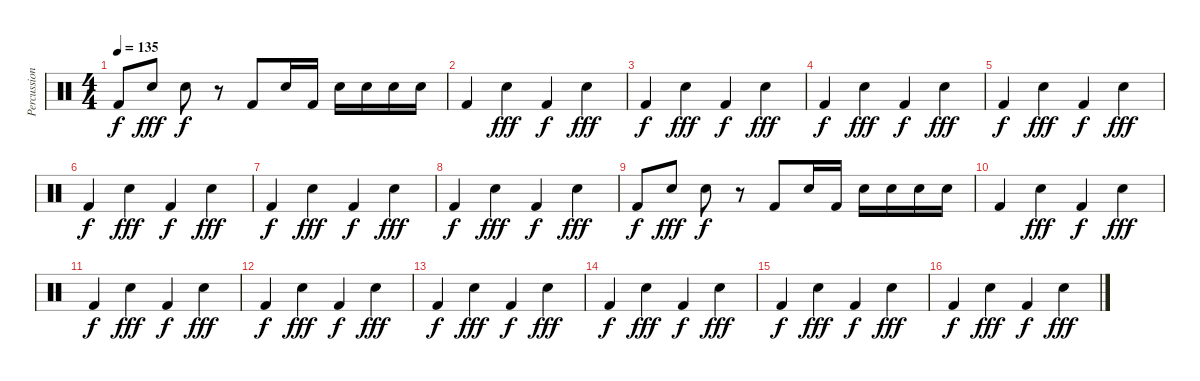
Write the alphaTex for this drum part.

\track ("Percussion1" "Percussion") {instrument percussion}
\staff {score}
\articulation defaults
\ts (4 4)
\tempo 135
\clef neutral
\ks c "Kick (hit) 2".8{dy f} "Electric Snare (hit)".8{dy fff} "Electric Snare (hit)".8{dy f}
r.8 "Kick (hit) 2".8 "Electric Snare (hit)".16 "Kick (hit) 2".16 "Electric Snare (hit)".16 "Snare (hit) 2".16 "Electric Snare (hit)".16 "Snare (hit) 2".16 |
"Kick (hit) 2".4 "Electric Snare (hit)".4{dy fff} "Kick (hit) 2".4{dy f} "Electric Snare (hit)".4{dy fff} |
"Kick (hit) 2".4{dy f} "Electric Snare (hit)".4{dy fff} "Kick (hit) 2".4{dy f} "Electric Snare (hit)".4{dy fff} |
"Kick (hit) 2".4{dy f} "Electric Snare (hit)".4{dy fff} "Kick (hit) 2".4{dy f} "Electric Snare (hit)".4{dy fff} |
"Kick (hit) 2".4{dy f} "Electric Snare (hit)".4{dy fff} "Kick (hit) 2".4{dy f} "Electric Snare (hit)".4{dy fff} |
"Kick (hit) 2".4{dy f} "Electric Snare (hit)".4{dy fff} "Kick (hit) 2".4{dy f} "Electric Snare (hit)".4{dy fff} |
"Kick (hit) 2".4{dy f} "Electric Snare (hit)".4{dy fff} "Kick (hit) 2".4{dy f} "Electric Snare (hit)".4{dy fff} |
"Kick (hit) 2".4{dy f} "Electric Snare (hit)".4{dy fff} "Kick (hit) 2".4{dy f} "Electric Snare (hit)".4{dy fff} |
"Kick (hit) 2".8{dy f} "Electric Snare (hit)".8{dy fff} "Electric Snare (hit)".8{dy f} r.8 "Kick (hit) 2".8 "Electric Snare (hit)".16 "Kick (hit) 2".16 "Electric Snare (hit)".16 "Snare (hit) 2".16 "Electric Snare (hit)".16 "Snare (hit) 2".16 |
"Kick (hit) 2".4 "Electric Snare (hit)".4{dy fff} "Kick (hit) 2".4{dy f} "Electric Snare (hit)".4{dy fff} |
"Kick (hit) 2".4{dy f} "Electric Snare (hit)".4{dy fff} "Kick (hit) 2".4{dy f} "Electric Snare (hit)".4{dy fff} |
"Kick (hit) 2".4{dy f} "Electric Snare (hit)".4{dy fff} "Kick (hit) 2".4{dy f} "Electric Snare (hit)".4{dy fff} |
"Kick (hit) 2".4{dy f} "Electric Snare (hit)".4{dy fff} "Kick (hit) 2".4{dy f} "Electric Snare (hit)".4{dy fff} |
"Kick (hit) 2".4{dy f} "Electric Snare (hit)".4{dy fff} "Kick (hit) 2".4{dy f} "Electric Snare (hit)".4{dy fff} |
"Kick (hit) 2".4{dy f} "Electric Snare (hit)".4{dy fff} "Kick (hit) 2".4{dy f} "Electric Snare (hit)".4{dy fff} |
"Kick (hit) 2".4{dy f} "Electric Snare (hit)".4{dy fff} "Kick (hit) 2".4{dy f} "Electric Snare (hit)".4{dy fff}
